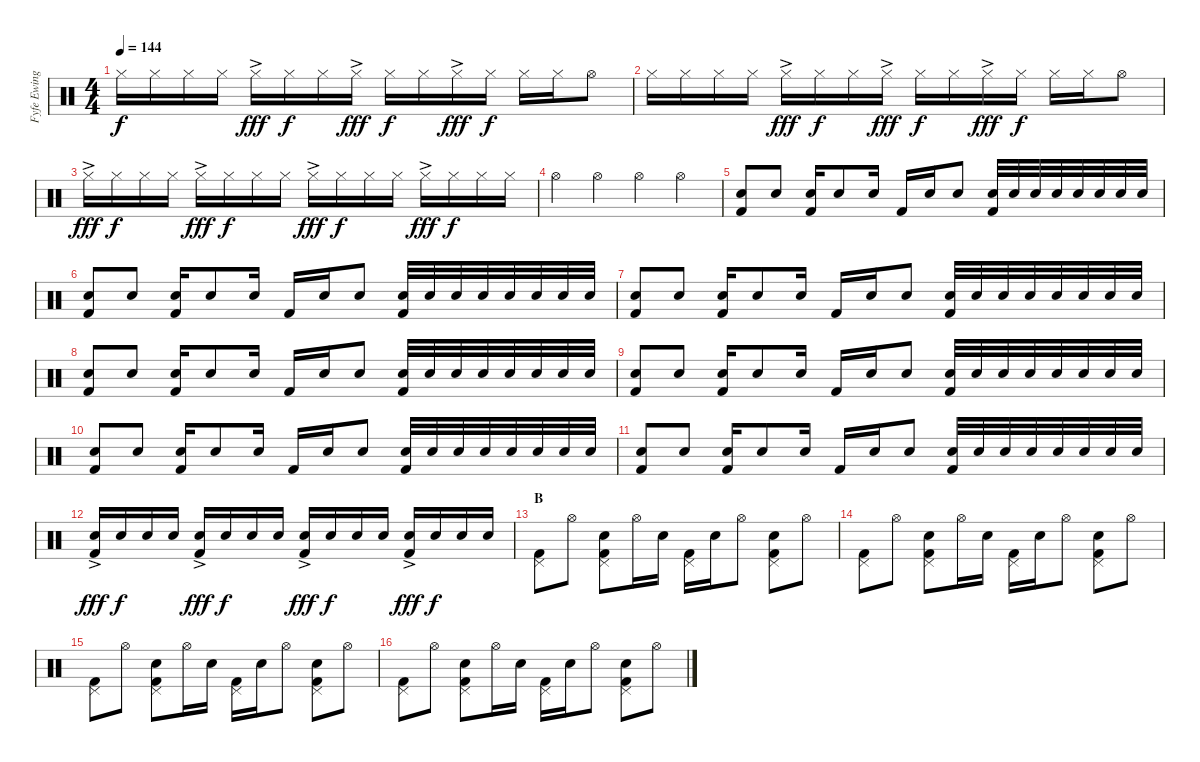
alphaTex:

\track ("Fyfe Ewing" "Fyfe Ewing") {instrument percussion}
\staff {score}
\articulation defaults
\ts (4 4)
\tempo 144
\clef neutral
\ks c "Hi-Hat (closed)".16{dy f} "Hi-Hat (closed)".16 "Hi-Hat (closed)".16 "Hi-Hat (closed)".16 "Hi-Hat (closed)"{ac}.16{dy fff} "Hi-Hat (closed)".16{dy f} "Hi-Hat (closed)".16 "Hi-Hat (closed)"{ac}.16{dy fff} "Hi-Hat (closed)".16{dy f} "Hi-Hat (closed)".16 "Hi-Hat (closed)"{ac}.16{dy fff} "Hi-Hat (closed)".16{dy f} "Hi-Hat (closed)".16 "Hi-Hat (closed)".16 "Hi-Hat (open)".8
|
"Hi-Hat (closed)".16 "Hi-Hat (closed)".16 "Hi-Hat (closed)".16 "Hi-Hat (closed)".16 "Hi-Hat (closed)"{ac}.16{dy fff} "Hi-Hat (closed)".16{dy f} "Hi-Hat (closed)".16 "Hi-Hat (closed)"{ac}.16{dy fff} "Hi-Hat (closed)".16{dy f} "Hi-Hat (closed)".16 "Hi-Hat (closed)"{ac}.16{dy fff} "Hi-Hat (closed)".16{dy f} "Hi-Hat (closed)".16 "Hi-Hat (closed)".16 "Hi-Hat (open)".8 |
"Hi-Hat (closed)"{ac}.16{dy fff} "Hi-Hat (closed)".16{dy f} "Hi-Hat (closed)".16 "Hi-Hat (closed)".16 "Hi-Hat (closed)"{ac}.16{dy fff} "Hi-Hat (closed)".16{dy f} "Hi-Hat (closed)".16 "Hi-Hat (closed)".16 "Hi-Hat (closed)"{ac}.16{dy fff} "Hi-Hat (closed)".16{dy f} "Hi-Hat (closed)".16 "Hi-Hat (closed)".16 "Hi-Hat (closed)"{ac}.16{dy fff} "Hi-Hat (closed)".16{dy f} "Hi-Hat (closed)".16 "Hi-Hat (closed)".16 |
"Hi-Hat (open)".4 "Hi-Hat (open)".4 "Hi-Hat (open)".4 "Hi-Hat (open)".4 |
("Snare (hit) 2" "Kick (hit) 2").8 "Snare (hit) 2".8 ("Snare (hit) 2" "Kick (hit) 2").16 "Snare (hit) 2".8 "Snare (hit) 2".16 "Kick (hit) 2".16 "Snare (hit) 2".16 "Snare (hit) 2".8 ("Snare (hit) 2" "Kick (hit) 2").32 "Snare (hit) 2".32 "Snare (hit) 2".32 "Snare (hit) 2".32 "Snare (hit) 2".32 "Snare (hit) 2".32 "Snare (hit) 2".32 "Snare (hit) 2".32 |
("Snare (hit) 2" "Kick (hit) 2").8 "Snare (hit) 2".8 ("Snare (hit) 2" "Kick (hit) 2").16 "Snare (hit) 2".8 "Snare (hit) 2".16 "Kick (hit) 2".16 "Snare (hit) 2".16 "Snare (hit) 2".8 ("Snare (hit) 2" "Kick (hit) 2").32 "Snare (hit) 2".32 "Snare (hit) 2".32 "Snare (hit) 2".32 "Snare (hit) 2".32 "Snare (hit) 2".32 "Snare (hit) 2".32 "Snare (hit) 2".32 |
("Snare (hit) 2" "Kick (hit) 2").8 "Snare (hit) 2".8 ("Snare (hit) 2" "Kick (hit) 2").16 "Snare (hit) 2".8 "Snare (hit) 2".16 "Kick (hit) 2".16 "Snare (hit) 2".16 "Snare (hit) 2".8 ("Snare (hit) 2" "Kick (hit) 2").32 "Snare (hit) 2".32 "Snare (hit) 2".32 "Snare (hit) 2".32 "Snare (hit) 2".32 "Snare (hit) 2".32 "Snare (hit) 2".32 "Snare (hit) 2".32 |
("Snare (hit) 2" "Kick (hit) 2").8 "Snare (hit) 2".8 ("Snare (hit) 2" "Kick (hit) 2").16 "Snare (hit) 2".8 "Snare (hit) 2".16 "Kick (hit) 2".16 "Snare (hit) 2".16 "Snare (hit) 2".8 ("Snare (hit) 2" "Kick (hit) 2").32 "Snare (hit) 2".32 "Snare (hit) 2".32 "Snare (hit) 2".32 "Snare (hit) 2".32 "Snare (hit) 2".32 "Snare (hit) 2".32 "Snare (hit) 2".32 |
("Snare (hit) 2" "Kick (hit) 2").8 "Snare (hit) 2".8 ("Snare (hit) 2" "Kick (hit) 2").16 "Snare (hit) 2".8 "Snare (hit) 2".16 "Kick (hit) 2".16 "Snare (hit) 2".16 "Snare (hit) 2".8 ("Snare (hit) 2" "Kick (hit) 2").32 "Snare (hit) 2".32 "Snare (hit) 2".32 "Snare (hit) 2".32 "Snare (hit) 2".32 "Snare (hit) 2".32 "Snare (hit) 2".32 "Snare (hit) 2".32 |
("Snare (hit) 2" "Kick (hit) 2").8 "Snare (hit) 2".8 ("Snare (hit) 2" "Kick (hit) 2").16 "Snare (hit) 2".8 "Snare (hit) 2".16 "Kick (hit) 2".16 "Snare (hit) 2".16 "Snare (hit) 2".8 ("Snare (hit) 2" "Kick (hit) 2").32 "Snare (hit) 2".32 "Snare (hit) 2".32 "Snare (hit) 2".32 "Snare (hit) 2".32 "Snare (hit) 2".32 "Snare (hit) 2".32 "Snare (hit) 2".32 |
("Snare (hit) 2" "Kick (hit) 2").8 "Snare (hit) 2".8 ("Snare (hit) 2" "Kick (hit) 2").16 "Snare (hit) 2".8 "Snare (hit) 2".16 "Kick (hit) 2".16 "Snare (hit) 2".16 "Snare (hit) 2".8 ("Snare (hit) 2" "Kick (hit) 2").32 "Snare (hit) 2".32 "Snare (hit) 2".32 "Snare (hit) 2".32 "Snare (hit) 2".32 "Snare (hit) 2".32 "Snare (hit) 2".32 "Snare (hit) 2".32 |
("Snare (hit) 2"{ac} "Kick (hit) 2").16{dy fff} "Snare (hit) 2".16{dy f} "Snare (hit) 2".16 "Snare (hit) 2".16 ("Snare (hit) 2"{ac} "Kick (hit) 2").16{dy fff} "Snare (hit) 2".16{dy f} "Snare (hit) 2".16 "Snare (hit) 2".16 ("Snare (hit) 2"{ac} "Kick (hit) 2").16{dy fff} "Snare (hit) 2".16{dy f} "Snare (hit) 2".16 "Snare (hit) 2".16 ("Snare (hit) 2"{ac} "Kick (hit) 2").16{dy fff} "Snare (hit) 2".16{dy f} "Snare (hit) 2".16 "Snare (hit) 2".16 |
\section ("" "B")
("Pedal Hi-Hat (hit)" "Kick (hit) 2").8 "Hi-Hat (open)".8 ("Pedal Hi-Hat (hit)" "Snare (hit) 2" "Kick (hit) 2").8 "Hi-Hat (open)".16 "Snare (hit) 2".16 ("Pedal Hi-Hat (hit)" "Kick (hit) 2").16 "Snare (hit) 2".16 "Hi-Hat (open)".8 ("Pedal Hi-Hat (hit)" "Snare (hit) 2" "Kick (hit) 2").8 "Hi-Hat (open)".8 |
("Pedal Hi-Hat (hit)" "Kick (hit) 2").8 "Hi-Hat (open)".8 ("Pedal Hi-Hat (hit)" "Snare (hit) 2" "Kick (hit) 2").8 "Hi-Hat (open)".16 "Snare (hit) 2".16 ("Pedal Hi-Hat (hit)" "Kick (hit) 2").16 "Snare (hit) 2".16 "Hi-Hat (open)".8 ("Pedal Hi-Hat (hit)" "Snare (hit) 2" "Kick (hit) 2").8 "Hi-Hat (open)".8 |
("Pedal Hi-Hat (hit)" "Kick (hit) 2").8 "Hi-Hat (open)".8 ("Pedal Hi-Hat (hit)" "Snare (hit) 2" "Kick (hit) 2").8 "Hi-Hat (open)".16 "Snare (hit) 2".16 ("Pedal Hi-Hat (hit)" "Kick (hit) 2").16 "Snare (hit) 2".16 "Hi-Hat (open)".8 ("Pedal Hi-Hat (hit)" "Snare (hit) 2" "Kick (hit) 2").8 "Hi-Hat (open)".8 |
("Pedal Hi-Hat (hit)" "Kick (hit) 2").8 "Hi-Hat (open)".8 ("Pedal Hi-Hat (hit)" "Snare (hit) 2" "Kick (hit) 2").8 "Hi-Hat (open)".16 "Snare (hit) 2".16 ("Pedal Hi-Hat (hit)" "Kick (hit) 2").16 "Snare (hit) 2".16 "Hi-Hat (open)".8 ("Pedal Hi-Hat (hit)" "Snare (hit) 2" "Kick (hit) 2").8 "Hi-Hat (open)".8
